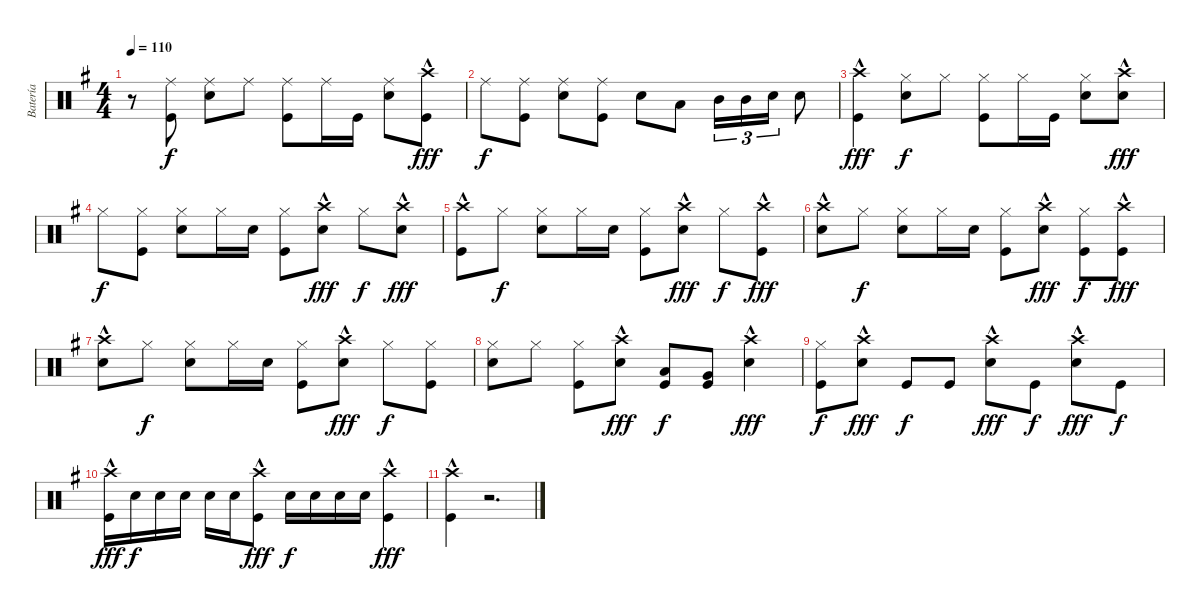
\track ("Batería" "Batería") {instrument percussion}
\staff {score}
\articulation defaults
\ts (4 4)
\tempo 110
\clef neutral
\ks g
r.8{dy fff} ("Ride (middle)" "Kick (hit)").8{dy f} ("Ride (middle)" "Snare (hit) 2").8 "Ride (middle)".8 ("Ride (middle)" "Kick (hit)").8 "Ride (middle)".16 "Kick (hit)".16 ("Ride (middle)" "Snare (hit) 2").8 ("Kick (hit)" "Crash high (hit)"{hac}).8{dy fff} |
"Ride (middle)".8{dy f} ("Ride (middle)" "Kick (hit)").8 ("Ride (middle)" "Snare (hit) 2").8 ("Ride (middle)" "Kick (hit)").8 "Snare (hit) 2".8 "Low Tom (hit)".8 "Mid Tom (hit)".16{tu (3 2)} "Mid Tom (hit)".16{tu (3 2)} "Snare (hit) 2".16{tu (3 2)} "Snare (hit) 2".8 |
("Kick (hit)" "Crash high (hit)"{hac}).4{dy fff} ("Hi-Hat (closed)" "Snare (hit) 2").8{dy f} "Hi-Hat (closed)".8 ("Hi-Hat (closed)" "Kick (hit)").8 "Hi-Hat (closed)".16 "Kick (hit)".16 ("Hi-Hat (closed)" "Snare (hit) 2").8 ("Crash high (hit)"{hac} "Snare (hit) 2").8{dy fff} |
"Hi-Hat (closed)".8{dy f} ("Hi-Hat (closed)" "Kick (hit)").8 ("Hi-Hat (closed)" "Snare (hit) 2").8 "Hi-Hat (closed)".16 "Snare (hit) 2".16 ("Hi-Hat (closed)" "Kick (hit)").8 ("Crash high (hit)"{hac} "Snare (hit) 2").8{dy fff} "Hi-Hat (closed)".8{dy f} ("Crash high (hit)"{hac} "Snare (hit) 2").8{dy fff} |
("Kick (hit)" "Crash high (hit)"{hac}).8 "Hi-Hat (closed)".8{dy f} ("Snare (hit) 2" "Hi-Hat (closed)").8 "Hi-Hat (closed)".16 "Snare (hit) 2".16 ("Hi-Hat (closed)" "Kick (hit)").8 ("Crash high (hit)"{hac} "Snare (hit) 2").8{dy fff} "Hi-Hat (closed)".8{dy f} ("Crash high (hit)"{hac} "Kick (hit)").8{dy fff} |
("Snare (hit) 2" "Crash high (hit)"{hac}).8 "Hi-Hat (closed)".8{dy f} ("Hi-Hat (closed)" "Snare (hit) 2").8 "Hi-Hat (closed)".16 "Snare (hit) 2".16 ("Hi-Hat (closed)" "Kick (hit)").8 ("Crash high (hit)"{hac} "Snare (hit) 2").8{dy fff} ("Hi-Hat (closed)" "Kick (hit)").8{dy f} ("Crash high (hit)"{hac} "Kick (hit)").8{dy fff} |
("Snare (hit) 2" "Crash high (hit)"{hac}).8 "Hi-Hat (closed)".8{dy f} ("Hi-Hat (closed)" "Snare (hit) 2").8 "Hi-Hat (closed)".16 "Snare (hit) 2".16 ("Hi-Hat (closed)" "Kick (hit)").8 ("Crash high (hit)"{hac} "Snare (hit) 2").8{dy fff} "Hi-Hat (closed)".8{dy f} ("Hi-Hat (closed)" "Kick (hit)").8 |
("Hi-Hat (closed)" "Snare (hit) 2").8 "Hi-Hat (closed)".8 ("Hi-Hat (closed)" "Kick (hit)").8 ("Crash high (hit)"{hac} "Snare (hit) 2").8{dy fff} ("Kick (hit)" "Low Tom (hit)").8{dy f} ("Kick (hit)" "Very Low Tom (hit)").8 ("Snare (hit) 2" "Crash high (hit)"{hac}).4{dy fff} |
("Kick (hit)" "Hi-Hat (closed)").8{dy f} ("Snare (hit) 2" "Crash high (hit)"{hac}).8{dy fff} "Kick (hit)".8{dy f} "Kick (hit)".8 ("Crash high (hit)" "Snare (hit) 2"{hac}).8{dy fff} "Kick (hit)".8{dy f} ("Snare (hit) 2" "Crash high (hit)"{hac}).8{dy fff} "Kick (hit)".8{dy f} |
("Kick (hit)" "Crash high (hit)"{hac}).16{dy fff} "Snare (hit) 2".16{dy f} "Snare (hit) 2".16 "Snare (hit) 2".16 "Snare (hit) 2".16 "Snare (hit) 2".16 ("Kick (hit)" "Crash high (hit)"{hac}).8{dy fff} "Snare (hit) 2".16{dy f} "Snare (hit) 2".16 "Snare (hit) 2".16 "Snare (hit) 2".16 ("Crash high (hit)" "Kick (hit)"{hac}).4{dy fff} |
("Kick (hit)" "Crash high (hit)"{hac}).4 r.2{d}
